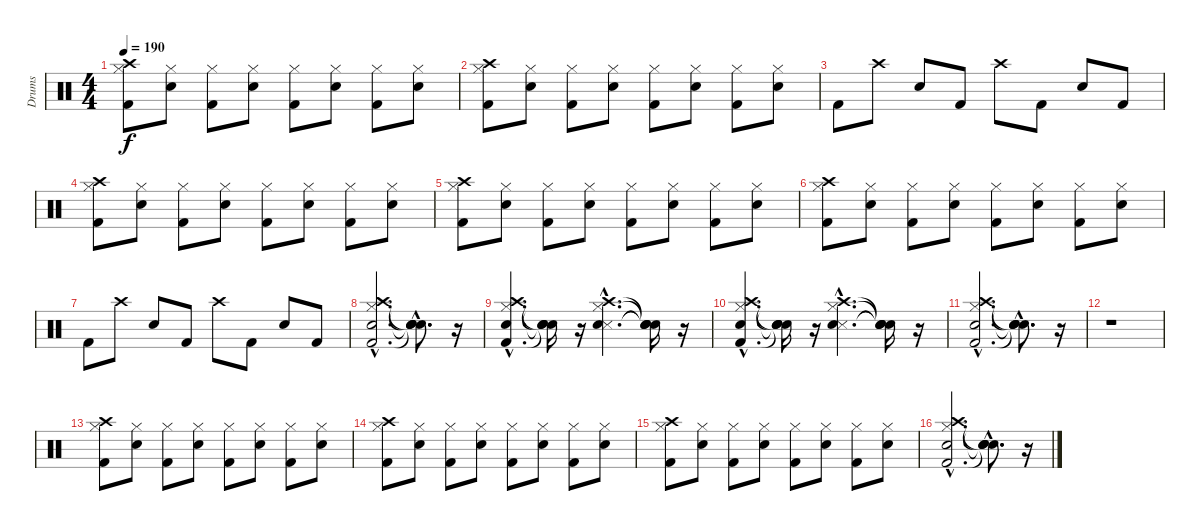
\track ("Drums" "Drums") {instrument percussion}
\staff {score}
\articulation defaults
\ts (4 4)
\tempo 190
\clef neutral
\ks c
("Kick (hit) 2" "Hi-Hat (closed)" "Crash high (hit)").8{dy f} ("Snare (hit) 2" "Hi-Hat (closed)").8 ("Kick (hit) 2" "Hi-Hat (closed)").8 ("Snare (hit) 2" "Hi-Hat (closed)").8 ("Kick (hit) 2" "Hi-Hat (closed)").8 ("Snare (hit) 2" "Hi-Hat (closed)").8 ("Kick (hit) 2" "Hi-Hat (closed)").8 ("Snare (hit) 2" "Hi-Hat (closed)").8 |
("Kick (hit) 2" "Hi-Hat (closed)" "Crash high (hit)").8 ("Snare (hit) 2" "Hi-Hat (closed)").8 ("Kick (hit) 2" "Hi-Hat (closed)").8 ("Snare (hit) 2" "Hi-Hat (closed)").8 ("Kick (hit) 2" "Hi-Hat (closed)").8 ("Snare (hit) 2" "Hi-Hat (closed)").8 ("Kick (hit) 2" "Hi-Hat (closed)").8 ("Snare (hit) 2" "Hi-Hat (closed)").8 |
"Kick (hit) 2".8 "Crash high (hit)".8 "Snare (hit) 2".8 "Kick (hit) 2".8 "Crash high (hit)".8 "Kick (hit) 2".8 "Snare (hit) 2".8 "Kick (hit) 2".8 |
("Kick (hit) 2" "Hi-Hat (closed)" "Crash high (hit)").8 ("Snare (hit) 2" "Hi-Hat (closed)").8 ("Kick (hit) 2" "Hi-Hat (closed)").8 ("Snare (hit) 2" "Hi-Hat (closed)").8 ("Kick (hit) 2" "Hi-Hat (closed)").8 ("Snare (hit) 2" "Hi-Hat (closed)").8 ("Kick (hit) 2" "Hi-Hat (closed)").8 ("Snare (hit) 2" "Hi-Hat (closed)").8 |
("Kick (hit) 2" "Hi-Hat (closed)" "Crash high (hit)").8 ("Snare (hit) 2" "Hi-Hat (closed)").8 ("Kick (hit) 2" "Hi-Hat (closed)").8 ("Snare (hit) 2" "Hi-Hat (closed)").8 ("Kick (hit) 2" "Hi-Hat (closed)").8 ("Snare (hit) 2" "Hi-Hat (closed)").8 ("Kick (hit) 2" "Hi-Hat (closed)").8 ("Snare (hit) 2" "Hi-Hat (closed)").8 |
("Kick (hit) 2" "Hi-Hat (closed)" "Crash high (hit)").8 ("Snare (hit) 2" "Hi-Hat (closed)").8 ("Kick (hit) 2" "Hi-Hat (closed)").8 ("Snare (hit) 2" "Hi-Hat (closed)").8 ("Kick (hit) 2" "Hi-Hat (closed)").8 ("Snare (hit) 2" "Hi-Hat (closed)").8 ("Kick (hit) 2" "Hi-Hat (closed)").8 ("Snare (hit) 2" "Hi-Hat (closed)").8 |
"Kick (hit) 2".8 "Crash high (hit)".8 "Snare (hit) 2".8 "Kick (hit) 2".8 "Crash high (hit)".8 "Kick (hit) 2".8 "Snare (hit) 2".8 "Kick (hit) 2".8 |
("Kick (hit) 2"{hac} "Snare (hit) 2"{hac} "Hi-Hat (closed)"{hac} "Crash high (hit)"{hac}).2{d} ("Snare (hit)"{hac t} "Snare (hit)"{hac t} "Snare (hit)"{hac t} "Snare (hit)"{hac t}).8{d} r.16 |
("Kick (hit) 2"{hac} "Snare (hit) 2"{hac} "Hi-Hat (closed)"{hac} "Crash high (hit)"{hac}).4{d} ("Snare (hit)"{t} "Snare (hit)"{t} "Snare (hit)"{t} "Snare (hit)"{t}).16 r.16 ("Snare (side stick) 3"{hac} "Snare (hit) 2"{hac} "Hi-Hat (closed)"{hac} "Crash high (hit)"{hac}).4{d} ("Snare (hit)"{t} "Snare (hit)"{t} "Snare (hit)"{t} "Snare (hit)"{t}).16 r.16 |
("Kick (hit) 2"{hac} "Snare (hit) 2"{hac} "Hi-Hat (closed)"{hac} "Crash high (hit)"{hac}).4{d} ("Snare (hit)"{t} "Snare (hit)"{t} "Snare (hit)"{t} "Snare (hit)"{t}).16 r.16 ("Snare (side stick) 3"{hac} "Snare (hit) 2"{hac} "Hi-Hat (closed)"{hac} "Crash high (hit)"{hac}).4{d} ("Snare (hit)"{t} "Snare (hit)"{t} "Snare (hit)"{t} "Snare (hit)"{t}).16 r.16 |
("Kick (hit) 2"{hac} "Snare (hit) 2"{hac} "Hi-Hat (closed)"{hac} "Crash high (hit)"{hac}).2{d} ("Snare (hit)"{hac t} "Snare (hit)"{hac t} "Snare (hit)"{hac t} "Snare (hit)"{hac t}).8{d} r.16 |
r.1 |
("Kick (hit) 2" "Hi-Hat (closed)" "Crash high (hit)").8 ("Snare (hit) 2" "Hi-Hat (closed)").8 ("Kick (hit) 2" "Hi-Hat (closed)").8 ("Snare (hit) 2" "Hi-Hat (closed)").8 ("Kick (hit) 2" "Hi-Hat (closed)").8 ("Snare (hit) 2" "Hi-Hat (closed)").8 ("Kick (hit) 2" "Hi-Hat (closed)").8 ("Snare (hit) 2" "Hi-Hat (closed)").8 |
("Kick (hit) 2" "Hi-Hat (closed)" "Crash high (hit)").8 ("Snare (hit) 2" "Hi-Hat (closed)").8 ("Kick (hit) 2" "Hi-Hat (closed)").8 ("Snare (hit) 2" "Hi-Hat (closed)").8 ("Kick (hit) 2" "Hi-Hat (closed)").8 ("Snare (hit) 2" "Hi-Hat (closed)").8 ("Kick (hit) 2" "Hi-Hat (closed)").8 ("Snare (hit) 2" "Hi-Hat (closed)").8 |
("Kick (hit) 2" "Hi-Hat (closed)" "Crash high (hit)").8 ("Snare (hit) 2" "Hi-Hat (closed)").8 ("Kick (hit) 2" "Hi-Hat (closed)").8 ("Snare (hit) 2" "Hi-Hat (closed)").8 ("Kick (hit) 2" "Hi-Hat (closed)").8 ("Snare (hit) 2" "Hi-Hat (closed)").8 ("Kick (hit) 2" "Hi-Hat (closed)").8 ("Snare (hit) 2" "Hi-Hat (closed)").8 |
("Kick (hit) 2"{hac} "Snare (hit) 2"{hac} "Hi-Hat (closed)"{hac} "Crash high (hit)"{hac}).2{d} ("Snare (hit)"{hac t} "Snare (hit)"{hac t} "Snare (hit)"{hac t} "Snare (hit)"{hac t}).8{d} r.16
